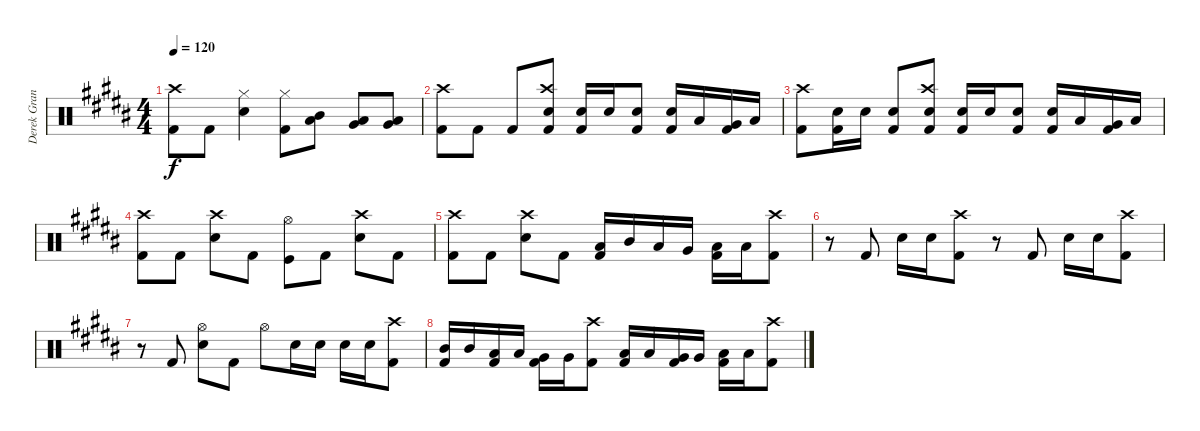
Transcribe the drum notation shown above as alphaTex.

\track ("Derek Grant - Drums" "Derek Gran") {instrument percussion}
\staff {score}
\articulation defaults
\ts (4 4)
\tempo 120
\clef neutral
\ks b
("Kick (hit) 2" "Crash high (hit)").8{dy f} "Kick (hit) 2".8 ("Snare (hit) 2" "Hi-Hat (closed)").4 ("Kick (hit) 2" "Hi-Hat (closed)").8 ("Low Tom (hit)" "Mid Tom (hit)").8 ("Low Tom (hit)" "Very Low Tom (hit)").8 ("Very Low Tom (hit)" "Low Floor Tom (hit)").8 |
("Kick (hit) 2" "Crash high (hit)").8 "Kick (hit) 2".8 "Kick (hit) 2".8 ("Snare (hit) 2" "Kick (hit) 2" "Crash high (hit)").8 ("Kick (hit) 2" "Snare (hit) 2").16 "Snare (hit) 2".16 ("Kick (hit) 2" "Snare (hit) 2").8 ("Kick (hit) 2" "Snare (hit) 2").16 "Low Tom (hit)".16 ("Kick (hit) 2" "Very Low Tom (hit)").16 "Low Floor Tom (hit)".16 |
("Kick (hit) 2" "Crash high (hit)").8 ("Kick (hit) 2" "Snare (hit) 2").16 "Snare (hit) 2".16 ("Snare (hit) 2" "Kick (hit) 2").8 ("Snare (hit) 2" "Kick (hit) 2" "Crash high (hit)").8 ("Kick (hit) 2" "Snare (hit) 2").16 "Snare (hit) 2".16 ("Kick (hit) 2" "Snare (hit) 2").8 ("Kick (hit) 2" "Snare (hit) 2").16 "Low Tom (hit)".16 ("Kick (hit) 2" "Very Low Tom (hit)").16 "Low Floor Tom (hit)".16 |
("Kick (hit) 2" "Crash high (hit)").8 "Kick (hit) 2".8 ("Snare (hit) 2" "Crash high (hit)").8 "Kick (hit) 2".8 ("Kick (hit)" "Hi-Hat (open)").8 "Kick (hit) 2".8 ("Snare (hit) 2" "Crash high (hit)").8 "Kick (hit) 2".8 |
("Kick (hit) 2" "Crash high (hit)").8 "Kick (hit) 2".8 ("Snare (hit) 2" "Crash high (hit)").8 "Kick (hit) 2".8 ("Kick (hit) 2" "Low Tom (hit)").16 "Mid Tom (hit)".16 "Low Tom (hit)".16 "Very Low Tom (hit)".16 ("Low Tom (hit)" "Kick (hit) 2").16 "Low Floor Tom (hit)".16 ("Kick (hit) 2" "Crash high (hit)").8 |
r.8 "Kick (hit) 2".8 "Snare (hit) 2".16 "Snare (hit) 2".16 ("Crash high (hit)" "Kick (hit) 2").8 r.8 "Kick (hit) 2".8 "Snare (hit) 2".16 "Snare (hit) 2".16 ("Crash high (hit)" "Kick (hit) 2").8 |
r.8 "Kick (hit) 2".8 ("Snare (hit) 2" "Hi-Hat (open)").8 "Kick (hit) 2".8 "Hi-Hat (open)".8 "Snare (hit) 2".16 "Snare (hit) 2".16 "Snare (hit) 2".16 "Snare (hit) 2".16 ("Crash high (hit)" "Kick (hit) 2").8 |
("Mid Tom (hit)" "Kick (hit) 2").16 "Mid Tom (hit)".16 ("Low Tom (hit)" "Kick (hit) 2").16 "Low Tom (hit)".16 ("Very Low Tom (hit)" "Kick (hit) 2").16 "Very Low Tom (hit)".16 ("Crash high (hit)" "Kick (hit) 2").8 ("Low Tom (hit)" "Kick (hit) 2").16 "Low Tom (hit)".16 ("Very Low Tom (hit)" "Kick (hit) 2").16 "Very Low Tom (hit)".16 ("Low Floor Tom (hit)" "Kick (hit) 2").16 "Low Floor Tom (hit)".16 ("Crash high (hit)" "Kick (hit) 2").8
